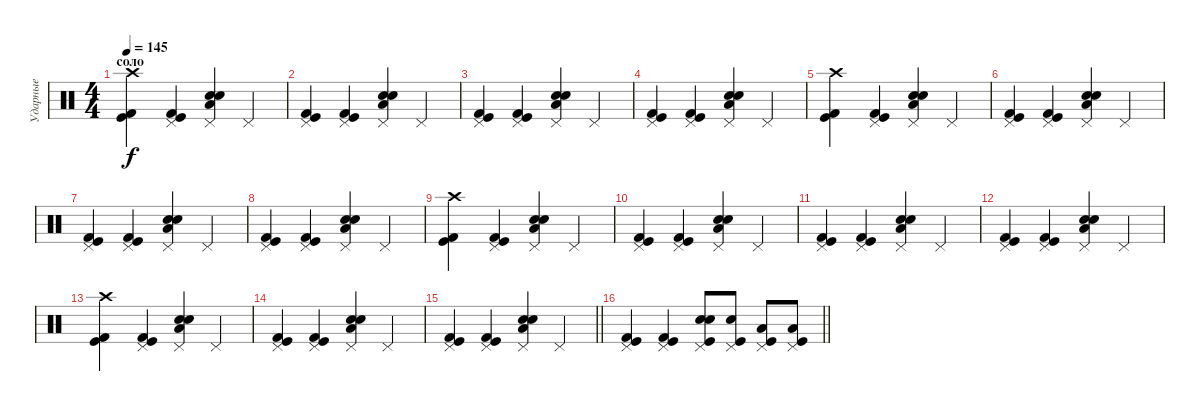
\track ("Ударные" "Ударные") {instrument percussion}
\staff {score}
\articulation defaults
\ts (4 4)
\section ("" "соло")
\tempo 145
\clef neutral
\ks c
("Crash high (hit)" "Kick (hit) 2" "Kick (hit)").4{dy f} ("Pedal Hi-Hat (hit)" "Kick (hit) 2" "Kick (hit)").4 ("Pedal Hi-Hat (hit)" "Snare (hit) 2" "Electric Snare (hit)" "Low Floor Tom (hit)").4 "Pedal Hi-Hat (hit)".4 |
("Pedal Hi-Hat (hit)" "Kick (hit) 2" "Kick (hit)").4 ("Pedal Hi-Hat (hit)" "Kick (hit) 2" "Kick (hit)").4 ("Pedal Hi-Hat (hit)" "Snare (hit) 2" "Electric Snare (hit)" "Low Floor Tom (hit)").4 "Pedal Hi-Hat (hit)".4 |
("Pedal Hi-Hat (hit)" "Kick (hit) 2" "Kick (hit)").4 ("Pedal Hi-Hat (hit)" "Kick (hit) 2" "Kick (hit)").4 ("Pedal Hi-Hat (hit)" "Snare (hit) 2" "Electric Snare (hit)" "Low Floor Tom (hit)").4 "Pedal Hi-Hat (hit)".4 |
("Pedal Hi-Hat (hit)" "Kick (hit) 2" "Kick (hit)").4 ("Pedal Hi-Hat (hit)" "Kick (hit) 2" "Kick (hit)").4 ("Pedal Hi-Hat (hit)" "Snare (hit) 2" "Electric Snare (hit)" "Low Floor Tom (hit)").4 "Pedal Hi-Hat (hit)".4 |
("Crash high (hit)" "Kick (hit) 2" "Kick (hit)").4 ("Pedal Hi-Hat (hit)" "Kick (hit) 2" "Kick (hit)").4 ("Pedal Hi-Hat (hit)" "Snare (hit) 2" "Electric Snare (hit)" "Low Floor Tom (hit)").4 "Pedal Hi-Hat (hit)".4 |
("Pedal Hi-Hat (hit)" "Kick (hit) 2" "Kick (hit)").4 ("Pedal Hi-Hat (hit)" "Kick (hit) 2" "Kick (hit)").4 ("Pedal Hi-Hat (hit)" "Snare (hit) 2" "Electric Snare (hit)" "Low Floor Tom (hit)").4 "Pedal Hi-Hat (hit)".4 |
("Pedal Hi-Hat (hit)" "Kick (hit) 2" "Kick (hit)").4 ("Pedal Hi-Hat (hit)" "Kick (hit) 2" "Kick (hit)").4 ("Pedal Hi-Hat (hit)" "Snare (hit) 2" "Electric Snare (hit)" "Low Floor Tom (hit)").4 "Pedal Hi-Hat (hit)".4 |
("Pedal Hi-Hat (hit)" "Kick (hit) 2" "Kick (hit)").4 ("Pedal Hi-Hat (hit)" "Kick (hit) 2" "Kick (hit)").4 ("Pedal Hi-Hat (hit)" "Snare (hit) 2" "Electric Snare (hit)" "Low Floor Tom (hit)").4 "Pedal Hi-Hat (hit)".4 |
("Crash high (hit)" "Kick (hit) 2" "Kick (hit)").4 ("Pedal Hi-Hat (hit)" "Kick (hit) 2" "Kick (hit)").4 ("Pedal Hi-Hat (hit)" "Snare (hit) 2" "Electric Snare (hit)" "Low Floor Tom (hit)").4 "Pedal Hi-Hat (hit)".4 |
("Pedal Hi-Hat (hit)" "Kick (hit) 2" "Kick (hit)").4 ("Pedal Hi-Hat (hit)" "Kick (hit) 2" "Kick (hit)").4 ("Pedal Hi-Hat (hit)" "Snare (hit) 2" "Electric Snare (hit)" "Low Floor Tom (hit)").4 "Pedal Hi-Hat (hit)".4 |
("Pedal Hi-Hat (hit)" "Kick (hit) 2" "Kick (hit)").4 ("Pedal Hi-Hat (hit)" "Kick (hit) 2" "Kick (hit)").4 ("Pedal Hi-Hat (hit)" "Snare (hit) 2" "Electric Snare (hit)" "Low Floor Tom (hit)").4 "Pedal Hi-Hat (hit)".4 |
("Pedal Hi-Hat (hit)" "Kick (hit) 2" "Kick (hit)").4 ("Pedal Hi-Hat (hit)" "Kick (hit) 2" "Kick (hit)").4 ("Pedal Hi-Hat (hit)" "Snare (hit) 2" "Electric Snare (hit)" "Low Floor Tom (hit)").4 "Pedal Hi-Hat (hit)".4 |
("Crash high (hit)" "Kick (hit) 2" "Kick (hit)").4 ("Pedal Hi-Hat (hit)" "Kick (hit) 2" "Kick (hit)").4 ("Pedal Hi-Hat (hit)" "Snare (hit) 2" "Electric Snare (hit)" "Low Floor Tom (hit)").4 "Pedal Hi-Hat (hit)".4 |
("Pedal Hi-Hat (hit)" "Kick (hit) 2" "Kick (hit)").4 ("Pedal Hi-Hat (hit)" "Kick (hit) 2" "Kick (hit)").4 ("Pedal Hi-Hat (hit)" "Snare (hit) 2" "Electric Snare (hit)" "Low Floor Tom (hit)").4 "Pedal Hi-Hat (hit)".4 |
\barLineRight lightlight
("Pedal Hi-Hat (hit)" "Kick (hit) 2" "Kick (hit)").4 ("Pedal Hi-Hat (hit)" "Kick (hit) 2" "Kick (hit)").4 ("Pedal Hi-Hat (hit)" "Snare (hit) 2" "Electric Snare (hit)" "Low Floor Tom (hit)").4 "Pedal Hi-Hat (hit)".4 |
\barLineRight lightlight
("Pedal Hi-Hat (hit)" "Kick (hit) 2" "Kick (hit)").4 ("Pedal Hi-Hat (hit)" "Kick (hit) 2" "Kick (hit)").4 ("Pedal Hi-Hat (hit)" "Electric Snare (hit)" "Kick (hit)" "Snare (hit)").8 ("Pedal Hi-Hat (hit)" "Electric Snare (hit)" "Kick (hit)").8 ("Pedal Hi-Hat (hit)" "Low Tom (hit)" "Kick (hit)").8 ("Pedal Hi-Hat (hit)" "Low Tom (hit)" "Kick (hit)").8
